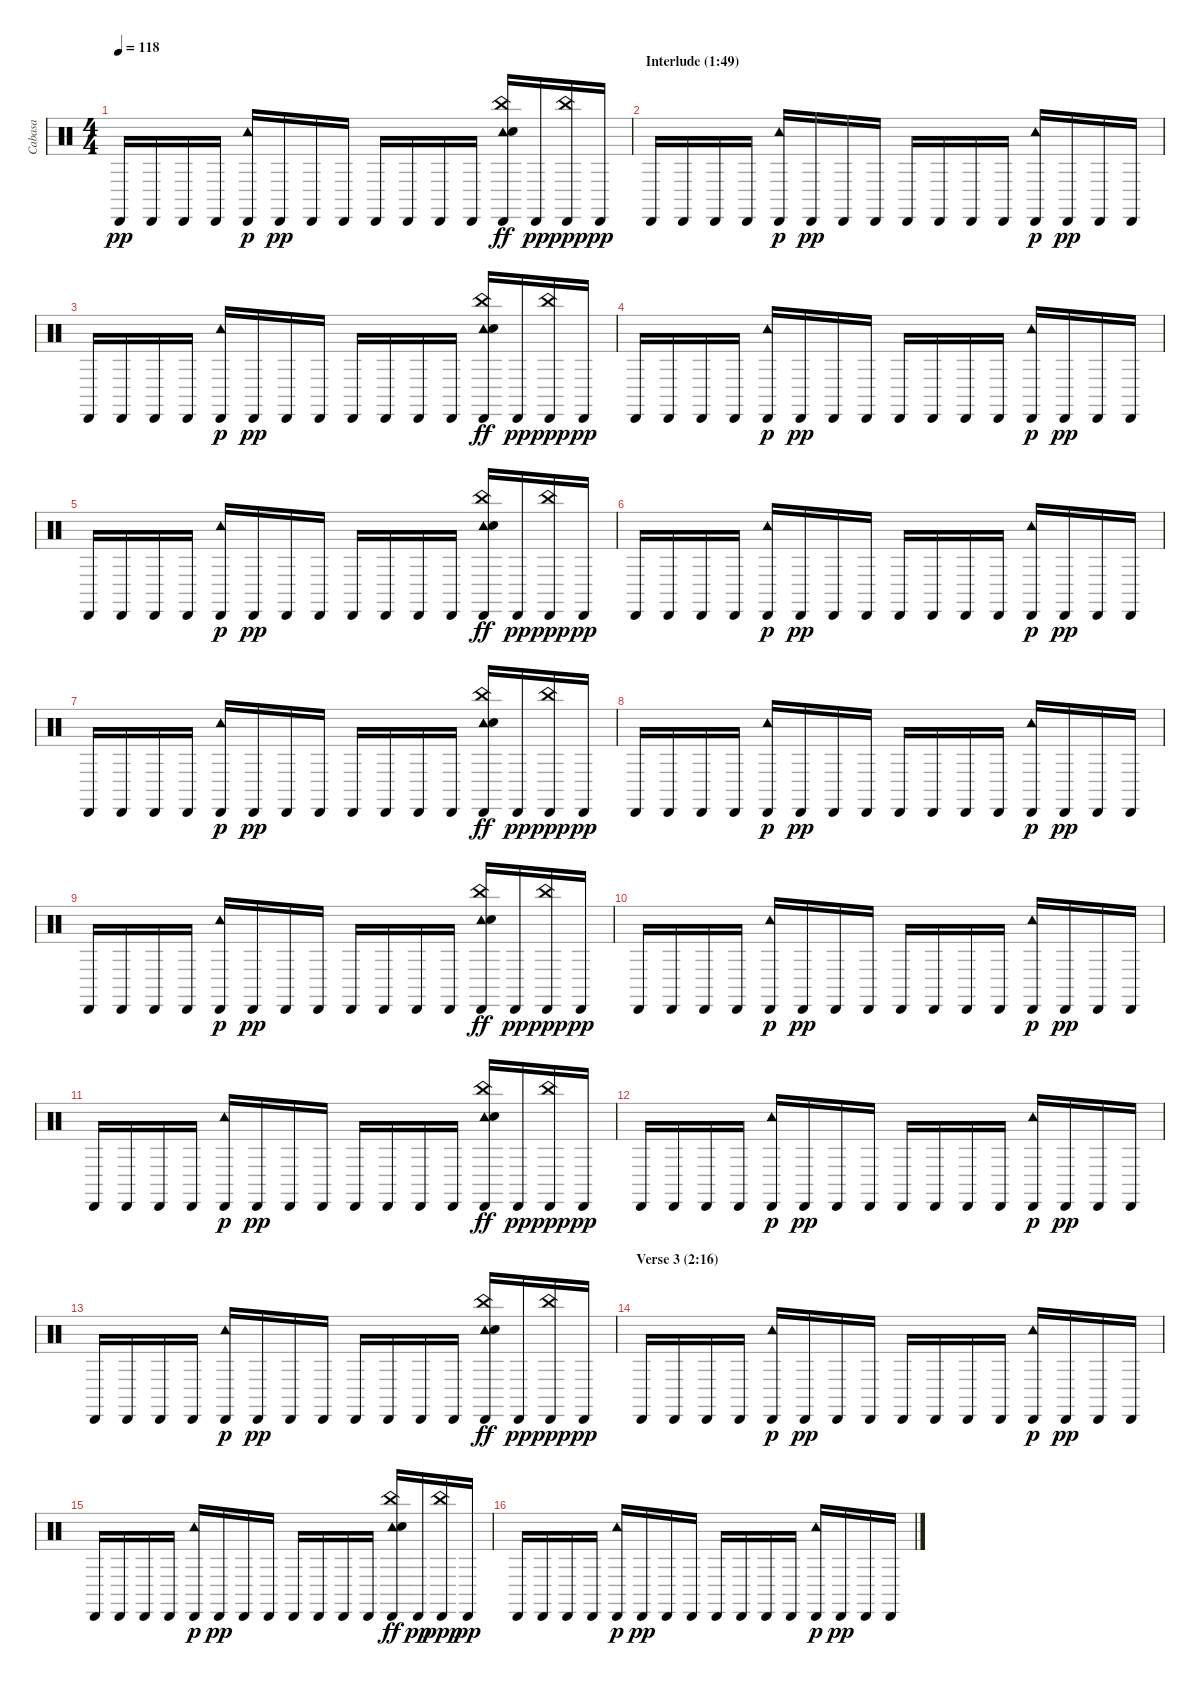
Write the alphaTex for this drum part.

\track ("Cabasa" "Cabasa") {instrument percussion}
\staff {score}
\articulation defaults
\ts (4 4)
\tempo 118
\clef neutral
\ks c "Cabasa (hit)".16{dy pp} "Cabasa (hit)".16 "Cabasa (hit)".16 "Cabasa (hit)".16
("Cabasa (hit)" "Tambourine (hit)").16{dy p} "Cabasa (hit)".16{dy pp} "Cabasa (hit)".16 "Cabasa (hit)".16 "Cabasa (hit)".16 "Cabasa (hit)".16 "Cabasa (hit)".16 "Cabasa (hit)".16 ("Cabasa (hit)" "Tambourine (hit)" "Hand Clap (hit)" "China (hit)").16{dy ff} "Cabasa (hit)".16{dy pp} ("Cabasa (hit)" "China (hit)").16{dy ppp} "Cabasa (hit)".16{dy pp} |
\section ("" "Interlude (1:49)")
"Cabasa (hit)".16 "Cabasa (hit)".16 "Cabasa (hit)".16 "Cabasa (hit)".16 ("Cabasa (hit)" "Tambourine (hit)").16{dy p} "Cabasa (hit)".16{dy pp} "Cabasa (hit)".16 "Cabasa (hit)".16 "Cabasa (hit)".16 "Cabasa (hit)".16 "Cabasa (hit)".16 "Cabasa (hit)".16 ("Cabasa (hit)" "Tambourine (hit)").16{dy p} "Cabasa (hit)".16{dy pp} "Cabasa (hit)".16 "Cabasa (hit)".16 |
"Cabasa (hit)".16 "Cabasa (hit)".16 "Cabasa (hit)".16 "Cabasa (hit)".16 ("Cabasa (hit)" "Tambourine (hit)").16{dy p} "Cabasa (hit)".16{dy pp} "Cabasa (hit)".16 "Cabasa (hit)".16 "Cabasa (hit)".16 "Cabasa (hit)".16 "Cabasa (hit)".16 "Cabasa (hit)".16 ("Cabasa (hit)" "Tambourine (hit)" "Hand Clap (hit)" "China (hit)").16{dy ff} "Cabasa (hit)".16{dy pp} ("Cabasa (hit)" "China (hit)").16{dy ppp} "Cabasa (hit)".16{dy pp} |
"Cabasa (hit)".16 "Cabasa (hit)".16 "Cabasa (hit)".16 "Cabasa (hit)".16 ("Cabasa (hit)" "Tambourine (hit)").16{dy p} "Cabasa (hit)".16{dy pp} "Cabasa (hit)".16 "Cabasa (hit)".16 "Cabasa (hit)".16 "Cabasa (hit)".16 "Cabasa (hit)".16 "Cabasa (hit)".16 ("Cabasa (hit)" "Tambourine (hit)").16{dy p} "Cabasa (hit)".16{dy pp} "Cabasa (hit)".16 "Cabasa (hit)".16 |
"Cabasa (hit)".16 "Cabasa (hit)".16 "Cabasa (hit)".16 "Cabasa (hit)".16 ("Cabasa (hit)" "Tambourine (hit)").16{dy p} "Cabasa (hit)".16{dy pp} "Cabasa (hit)".16 "Cabasa (hit)".16 "Cabasa (hit)".16 "Cabasa (hit)".16 "Cabasa (hit)".16 "Cabasa (hit)".16 ("Cabasa (hit)" "Tambourine (hit)" "Hand Clap (hit)" "China (hit)").16{dy ff} "Cabasa (hit)".16{dy pp} ("Cabasa (hit)" "China (hit)").16{dy ppp} "Cabasa (hit)".16{dy pp} |
"Cabasa (hit)".16 "Cabasa (hit)".16 "Cabasa (hit)".16 "Cabasa (hit)".16 ("Cabasa (hit)" "Tambourine (hit)").16{dy p} "Cabasa (hit)".16{dy pp} "Cabasa (hit)".16 "Cabasa (hit)".16 "Cabasa (hit)".16 "Cabasa (hit)".16 "Cabasa (hit)".16 "Cabasa (hit)".16 ("Cabasa (hit)" "Tambourine (hit)").16{dy p} "Cabasa (hit)".16{dy pp} "Cabasa (hit)".16 "Cabasa (hit)".16 |
"Cabasa (hit)".16 "Cabasa (hit)".16 "Cabasa (hit)".16 "Cabasa (hit)".16 ("Cabasa (hit)" "Tambourine (hit)").16{dy p} "Cabasa (hit)".16{dy pp} "Cabasa (hit)".16 "Cabasa (hit)".16 "Cabasa (hit)".16 "Cabasa (hit)".16 "Cabasa (hit)".16 "Cabasa (hit)".16 ("Cabasa (hit)" "Tambourine (hit)" "Hand Clap (hit)" "China (hit)").16{dy ff} "Cabasa (hit)".16{dy pp} ("Cabasa (hit)" "China (hit)").16{dy ppp} "Cabasa (hit)".16{dy pp} |
"Cabasa (hit)".16 "Cabasa (hit)".16 "Cabasa (hit)".16 "Cabasa (hit)".16 ("Cabasa (hit)" "Tambourine (hit)").16{dy p} "Cabasa (hit)".16{dy pp} "Cabasa (hit)".16 "Cabasa (hit)".16 "Cabasa (hit)".16 "Cabasa (hit)".16 "Cabasa (hit)".16 "Cabasa (hit)".16 ("Cabasa (hit)" "Tambourine (hit)").16{dy p} "Cabasa (hit)".16{dy pp} "Cabasa (hit)".16 "Cabasa (hit)".16 |
"Cabasa (hit)".16 "Cabasa (hit)".16 "Cabasa (hit)".16 "Cabasa (hit)".16 ("Cabasa (hit)" "Tambourine (hit)").16{dy p} "Cabasa (hit)".16{dy pp} "Cabasa (hit)".16 "Cabasa (hit)".16 "Cabasa (hit)".16 "Cabasa (hit)".16 "Cabasa (hit)".16 "Cabasa (hit)".16 ("Cabasa (hit)" "Tambourine (hit)" "Hand Clap (hit)" "China (hit)").16{dy ff} "Cabasa (hit)".16{dy pp} ("Cabasa (hit)" "China (hit)").16{dy ppp} "Cabasa (hit)".16{dy pp} |
"Cabasa (hit)".16 "Cabasa (hit)".16 "Cabasa (hit)".16 "Cabasa (hit)".16 ("Cabasa (hit)" "Tambourine (hit)").16{dy p} "Cabasa (hit)".16{dy pp} "Cabasa (hit)".16 "Cabasa (hit)".16 "Cabasa (hit)".16 "Cabasa (hit)".16 "Cabasa (hit)".16 "Cabasa (hit)".16 ("Cabasa (hit)" "Tambourine (hit)").16{dy p} "Cabasa (hit)".16{dy pp} "Cabasa (hit)".16 "Cabasa (hit)".16 |
"Cabasa (hit)".16 "Cabasa (hit)".16 "Cabasa (hit)".16 "Cabasa (hit)".16 ("Cabasa (hit)" "Tambourine (hit)").16{dy p} "Cabasa (hit)".16{dy pp} "Cabasa (hit)".16 "Cabasa (hit)".16 "Cabasa (hit)".16 "Cabasa (hit)".16 "Cabasa (hit)".16 "Cabasa (hit)".16 ("Cabasa (hit)" "Tambourine (hit)" "Hand Clap (hit)" "China (hit)").16{dy ff} "Cabasa (hit)".16{dy pp} ("Cabasa (hit)" "China (hit)").16{dy ppp} "Cabasa (hit)".16{dy pp} |
"Cabasa (hit)".16 "Cabasa (hit)".16 "Cabasa (hit)".16 "Cabasa (hit)".16 ("Cabasa (hit)" "Tambourine (hit)").16{dy p} "Cabasa (hit)".16{dy pp} "Cabasa (hit)".16 "Cabasa (hit)".16 "Cabasa (hit)".16 "Cabasa (hit)".16 "Cabasa (hit)".16 "Cabasa (hit)".16 ("Cabasa (hit)" "Tambourine (hit)").16{dy p} "Cabasa (hit)".16{dy pp} "Cabasa (hit)".16 "Cabasa (hit)".16 |
"Cabasa (hit)".16 "Cabasa (hit)".16 "Cabasa (hit)".16 "Cabasa (hit)".16 ("Cabasa (hit)" "Tambourine (hit)").16{dy p} "Cabasa (hit)".16{dy pp} "Cabasa (hit)".16 "Cabasa (hit)".16 "Cabasa (hit)".16 "Cabasa (hit)".16 "Cabasa (hit)".16 "Cabasa (hit)".16 ("Cabasa (hit)" "Tambourine (hit)" "Hand Clap (hit)" "China (hit)").16{dy ff} "Cabasa (hit)".16{dy pp} ("Cabasa (hit)" "China (hit)").16{dy ppp} "Cabasa (hit)".16{dy pp} |
\section ("" "Verse 3 (2:16)")
"Cabasa (hit)".16 "Cabasa (hit)".16 "Cabasa (hit)".16 "Cabasa (hit)".16 ("Cabasa (hit)" "Tambourine (hit)").16{dy p} "Cabasa (hit)".16{dy pp} "Cabasa (hit)".16 "Cabasa (hit)".16 "Cabasa (hit)".16 "Cabasa (hit)".16 "Cabasa (hit)".16 "Cabasa (hit)".16 ("Cabasa (hit)" "Tambourine (hit)").16{dy p} "Cabasa (hit)".16{dy pp} "Cabasa (hit)".16 "Cabasa (hit)".16 |
"Cabasa (hit)".16 "Cabasa (hit)".16 "Cabasa (hit)".16 "Cabasa (hit)".16 ("Cabasa (hit)" "Tambourine (hit)").16{dy p} "Cabasa (hit)".16{dy pp} "Cabasa (hit)".16 "Cabasa (hit)".16 "Cabasa (hit)".16 "Cabasa (hit)".16 "Cabasa (hit)".16 "Cabasa (hit)".16 ("Cabasa (hit)" "Tambourine (hit)" "Hand Clap (hit)" "China (hit)").16{dy ff} "Cabasa (hit)".16{dy pp} ("Cabasa (hit)" "China (hit)").16{dy ppp} "Cabasa (hit)".16{dy pp} |
"Cabasa (hit)".16 "Cabasa (hit)".16 "Cabasa (hit)".16 "Cabasa (hit)".16 ("Cabasa (hit)" "Tambourine (hit)").16{dy p} "Cabasa (hit)".16{dy pp} "Cabasa (hit)".16 "Cabasa (hit)".16 "Cabasa (hit)".16 "Cabasa (hit)".16 "Cabasa (hit)".16 "Cabasa (hit)".16 ("Cabasa (hit)" "Tambourine (hit)").16{dy p} "Cabasa (hit)".16{dy pp} "Cabasa (hit)".16 "Cabasa (hit)".16
